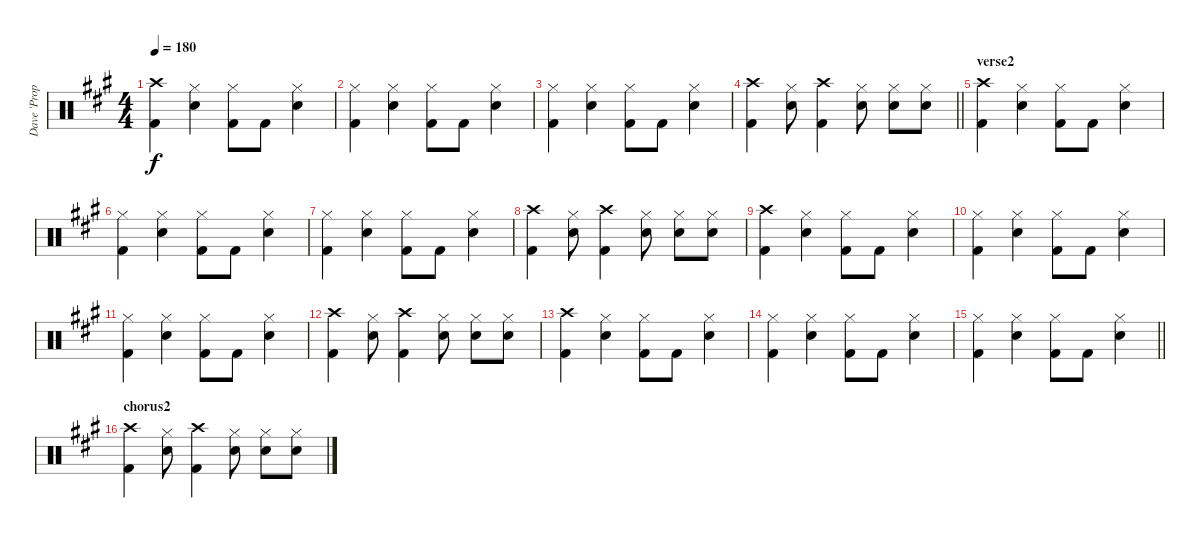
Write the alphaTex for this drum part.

\track ("Dave 'Proper' Caution" "Dave 'Prop") {instrument percussion}
\staff {score}
\articulation defaults
\ts (4 4)
\tempo 180
\clef neutral
\ks a
("Crash high (hit)" "Kick (hit) 2").4{dy f} ("Hi-Hat (closed)" "Electric Snare (hit)").4 ("Hi-Hat (closed)" "Kick (hit) 2").8 "Kick (hit) 2".8 ("Hi-Hat (closed)" "Electric Snare (hit)").4 |
("Hi-Hat (closed)" "Kick (hit) 2").4 ("Hi-Hat (closed)" "Electric Snare (hit)").4 ("Hi-Hat (closed)" "Kick (hit) 2").8 "Kick (hit) 2".8 ("Hi-Hat (closed)" "Electric Snare (hit)").4 |
("Hi-Hat (closed)" "Kick (hit) 2").4 ("Hi-Hat (closed)" "Electric Snare (hit)").4 ("Hi-Hat (closed)" "Kick (hit) 2").8 "Kick (hit) 2".8 ("Hi-Hat (closed)" "Electric Snare (hit)").4 |
\barLineRight lightlight
("Crash high (hit)" "Kick (hit) 2").4 ("Hi-Hat (closed)" "Electric Snare (hit)").8 ("Crash high (hit)" "Kick (hit) 2").4 ("Hi-Hat (closed)" "Electric Snare (hit)").8 ("Hi-Hat (closed)" "Electric Snare (hit)").8 ("Hi-Hat (closed)" "Electric Snare (hit)").8 |
\section ("" "verse2")
("Crash high (hit)" "Kick (hit) 2").4 ("Hi-Hat (closed)" "Electric Snare (hit)").4 ("Hi-Hat (closed)" "Kick (hit) 2").8 "Kick (hit) 2".8 ("Hi-Hat (closed)" "Electric Snare (hit)").4 |
("Hi-Hat (closed)" "Kick (hit) 2").4 ("Hi-Hat (closed)" "Electric Snare (hit)").4 ("Hi-Hat (closed)" "Kick (hit) 2").8 "Kick (hit) 2".8 ("Hi-Hat (closed)" "Electric Snare (hit)").4 |
("Hi-Hat (closed)" "Kick (hit) 2").4 ("Hi-Hat (closed)" "Electric Snare (hit)").4 ("Hi-Hat (closed)" "Kick (hit) 2").8 "Kick (hit) 2".8 ("Hi-Hat (closed)" "Electric Snare (hit)").4 |
("Crash high (hit)" "Kick (hit) 2").4 ("Hi-Hat (closed)" "Electric Snare (hit)").8 ("Crash high (hit)" "Kick (hit) 2").4 ("Hi-Hat (closed)" "Electric Snare (hit)").8 ("Hi-Hat (closed)" "Electric Snare (hit)").8 ("Hi-Hat (closed)" "Electric Snare (hit)").8 |
("Crash high (hit)" "Kick (hit) 2").4 ("Hi-Hat (closed)" "Electric Snare (hit)").4 ("Hi-Hat (closed)" "Kick (hit) 2").8 "Kick (hit) 2".8 ("Hi-Hat (closed)" "Electric Snare (hit)").4 |
("Hi-Hat (closed)" "Kick (hit) 2").4 ("Hi-Hat (closed)" "Electric Snare (hit)").4 ("Hi-Hat (closed)" "Kick (hit) 2").8 "Kick (hit) 2".8 ("Hi-Hat (closed)" "Electric Snare (hit)").4 |
("Hi-Hat (closed)" "Kick (hit) 2").4 ("Hi-Hat (closed)" "Electric Snare (hit)").4 ("Hi-Hat (closed)" "Kick (hit) 2").8 "Kick (hit) 2".8 ("Hi-Hat (closed)" "Electric Snare (hit)").4 |
("Crash high (hit)" "Kick (hit) 2").4 ("Hi-Hat (closed)" "Electric Snare (hit)").8 ("Crash high (hit)" "Kick (hit) 2").4 ("Hi-Hat (closed)" "Electric Snare (hit)").8 ("Hi-Hat (closed)" "Electric Snare (hit)").8 ("Hi-Hat (closed)" "Electric Snare (hit)").8 |
("Crash high (hit)" "Kick (hit) 2").4 ("Hi-Hat (closed)" "Electric Snare (hit)").4 ("Hi-Hat (closed)" "Kick (hit) 2").8 "Kick (hit) 2".8 ("Hi-Hat (closed)" "Electric Snare (hit)").4 |
("Hi-Hat (closed)" "Kick (hit) 2").4 ("Hi-Hat (closed)" "Electric Snare (hit)").4 ("Hi-Hat (closed)" "Kick (hit) 2").8 "Kick (hit) 2".8 ("Hi-Hat (closed)" "Electric Snare (hit)").4 |
\barLineRight lightlight
("Hi-Hat (closed)" "Kick (hit) 2").4 ("Hi-Hat (closed)" "Electric Snare (hit)").4 ("Hi-Hat (closed)" "Kick (hit) 2").8 "Kick (hit) 2".8 ("Hi-Hat (closed)" "Electric Snare (hit)").4 |
\section ("" "chorus2")
("Crash high (hit)" "Kick (hit) 2").4 ("Hi-Hat (closed)" "Electric Snare (hit)").8 ("Crash high (hit)" "Kick (hit) 2").4 ("Hi-Hat (closed)" "Electric Snare (hit)").8 ("Hi-Hat (closed)" "Electric Snare (hit)").8 ("Hi-Hat (closed)" "Electric Snare (hit)").8
